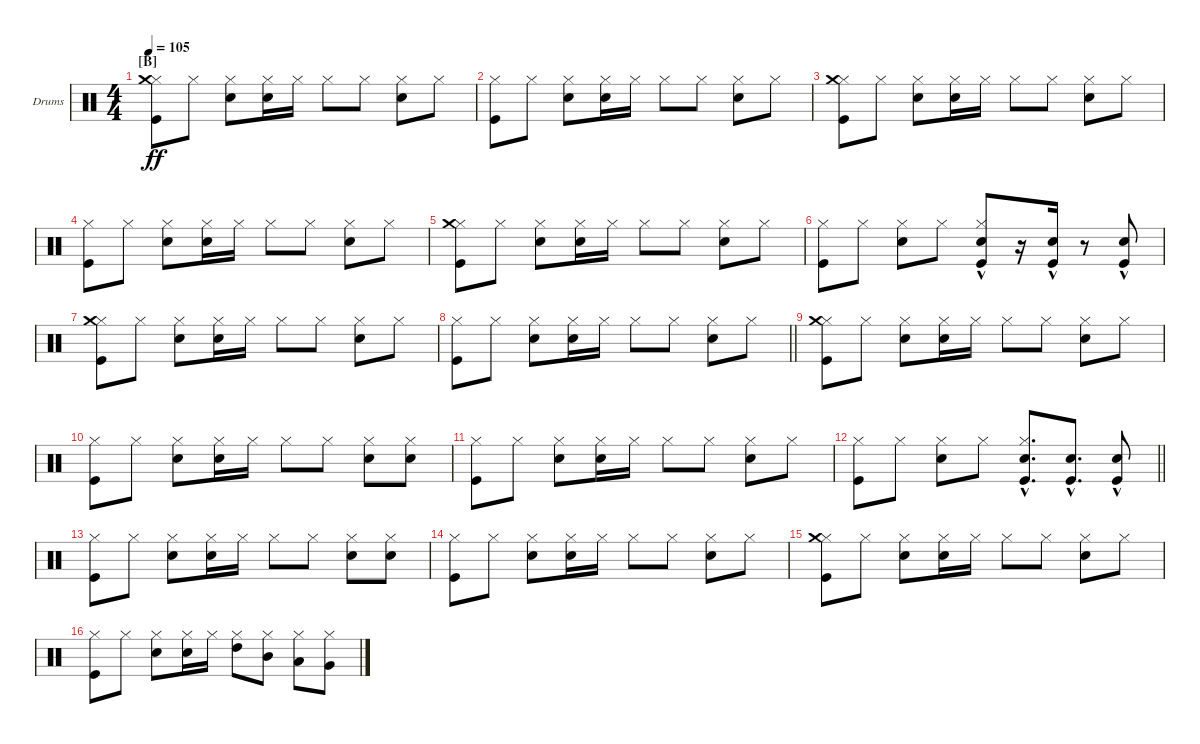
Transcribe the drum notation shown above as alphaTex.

\bracketExtendMode groupsimilarinstruments
\firstSystemTrackNameOrientation horizontal
\otherSystemsTrackNameOrientation horizontal
\track ("Drumkit" "Drums") {instrument percussion}
\staff {score}
\articulation defaults
\ts (4 4)
\section ("B" "")
\tempo 105
\clef neutral
\ks c
("Kick (hit)" "Hi-Hat (closed)" "Crash medium (hit)").8{dy ff} "Hi-Hat (closed)".8 ("Snare (hit) 2" "Hi-Hat (closed)").8 ("Hi-Hat (closed)" "Snare (hit) 2").16 "Hi-Hat (closed)".16 "Hi-Hat (closed)".8 "Hi-Hat (closed)".8 ("Snare (hit) 2" "Hi-Hat (closed)").8 "Hi-Hat (closed)".8 |
("Kick (hit)" "Hi-Hat (closed)").8 "Hi-Hat (closed)".8 ("Snare (hit) 2" "Hi-Hat (closed)").8 ("Hi-Hat (closed)" "Snare (hit) 2").16 "Hi-Hat (closed)".16 "Hi-Hat (closed)".8 "Hi-Hat (closed)".8 ("Snare (hit) 2" "Hi-Hat (closed)").8 "Hi-Hat (closed)".8 |
("Kick (hit)" "Hi-Hat (closed)" "Crash medium (hit)").8 "Hi-Hat (closed)".8 ("Snare (hit) 2" "Hi-Hat (closed)").8 ("Hi-Hat (closed)" "Snare (hit) 2").16 "Hi-Hat (closed)".16 "Hi-Hat (closed)".8 "Hi-Hat (closed)".8 ("Snare (hit) 2" "Hi-Hat (closed)").8 "Hi-Hat (closed)".8 |
("Kick (hit)" "Hi-Hat (closed)").8 "Hi-Hat (closed)".8 ("Snare (hit) 2" "Hi-Hat (closed)").8 ("Hi-Hat (closed)" "Snare (hit) 2").16 "Hi-Hat (closed)".16 "Hi-Hat (closed)".8 "Hi-Hat (closed)".8 ("Snare (hit) 2" "Hi-Hat (closed)").8 "Hi-Hat (closed)".8 |
("Kick (hit)" "Hi-Hat (closed)" "Crash medium (hit)").8 "Hi-Hat (closed)".8 ("Snare (hit) 2" "Hi-Hat (closed)").8 ("Hi-Hat (closed)" "Snare (hit) 2").16 "Hi-Hat (closed)".16 "Hi-Hat (closed)".8 "Hi-Hat (closed)".8 ("Snare (hit) 2" "Hi-Hat (closed)").8 "Hi-Hat (closed)".8 |
("Hi-Hat (closed)" "Kick (hit)").8 "Hi-Hat (closed)".8 ("Snare (hit) 2" "Hi-Hat (closed)").8 "Hi-Hat (closed)".8 ("Hi-Hat (closed)" "Snare (hit) 2"{hac} "Kick (hit)").8 r.16 ("Snare (hit) 2"{hac} "Kick (hit)").16 r.8 ("Snare (hit) 2"{hac} "Kick (hit)").8 |
("Kick (hit)" "Hi-Hat (closed)" "Crash medium (hit)").8 "Hi-Hat (closed)".8 ("Snare (hit) 2" "Hi-Hat (closed)").8 ("Hi-Hat (closed)" "Snare (hit) 2").16 "Hi-Hat (closed)".16 "Hi-Hat (closed)".8 "Hi-Hat (closed)".8 ("Snare (hit) 2" "Hi-Hat (closed)").8 "Hi-Hat (closed)".8 |
\barLineRight lightlight
("Kick (hit)" "Hi-Hat (closed)").8 "Hi-Hat (closed)".8 ("Snare (hit) 2" "Hi-Hat (closed)").8 ("Hi-Hat (closed)" "Snare (hit) 2").16 "Hi-Hat (closed)".16 "Hi-Hat (closed)".8 "Hi-Hat (closed)".8 ("Snare (hit) 2" "Hi-Hat (closed)").8 "Hi-Hat (closed)".8 |
("Kick (hit)" "Hi-Hat (closed)" "Crash medium (hit)").8 "Hi-Hat (closed)".8 ("Snare (hit) 2" "Hi-Hat (closed)").8 ("Hi-Hat (closed)" "Snare (hit) 2").16 "Hi-Hat (closed)".16 "Hi-Hat (closed)".8 "Hi-Hat (closed)".8 ("Snare (hit) 2" "Hi-Hat (closed)").8 "Hi-Hat (closed)".8 |
("Kick (hit)" "Hi-Hat (closed)").8 "Hi-Hat (closed)".8 ("Snare (hit) 2" "Hi-Hat (closed)").8 ("Hi-Hat (closed)" "Snare (hit) 2").16 "Hi-Hat (closed)".16 "Hi-Hat (closed)".8 "Hi-Hat (closed)".8 ("Snare (hit) 2" "Hi-Hat (closed)").8 ("Hi-Hat (closed)" "Snare (hit) 2").8 |
("Kick (hit)" "Hi-Hat (closed)").8 "Hi-Hat (closed)".8 ("Snare (hit) 2" "Hi-Hat (closed)").8 ("Hi-Hat (closed)" "Snare (hit) 2").16 "Hi-Hat (closed)".16 "Hi-Hat (closed)".8 "Hi-Hat (closed)".8 ("Snare (hit) 2" "Hi-Hat (closed)").8 "Hi-Hat (closed)".8 |
\barLineRight lightlight
("Hi-Hat (closed)" "Kick (hit)").8 "Hi-Hat (closed)".8 ("Snare (hit) 2" "Hi-Hat (closed)").8 "Hi-Hat (closed)".8 ("Hi-Hat (closed)" "Snare (hit) 2"{hac} "Kick (hit)").8{d} ("Snare (hit) 2"{hac} "Kick (hit)").8{d} ("Snare (hit) 2"{hac} "Kick (hit)").8 |
("Kick (hit)" "Hi-Hat (closed)").8 "Hi-Hat (closed)".8 ("Snare (hit) 2" "Hi-Hat (closed)").8 ("Hi-Hat (closed)" "Snare (hit) 2").16 "Hi-Hat (closed)".16 "Hi-Hat (closed)".8 "Hi-Hat (closed)".8 ("Snare (hit) 2" "Hi-Hat (closed)").8 ("Hi-Hat (closed)" "Snare (hit) 2").8 |
("Kick (hit)" "Hi-Hat (closed)").8 "Hi-Hat (closed)".8 ("Snare (hit) 2" "Hi-Hat (closed)").8 ("Hi-Hat (closed)" "Snare (hit) 2").16 "Hi-Hat (closed)".16 "Hi-Hat (closed)".8 "Hi-Hat (closed)".8 ("Snare (hit) 2" "Hi-Hat (closed)").8 "Hi-Hat (closed)".8 |
("Kick (hit)" "Hi-Hat (closed)" "Crash medium (hit)").8 "Hi-Hat (closed)".8 ("Snare (hit) 2" "Hi-Hat (closed)").8 ("Hi-Hat (closed)" "Snare (hit) 2").16 "Hi-Hat (closed)".16 "Hi-Hat (closed)".8 "Hi-Hat (closed)".8 ("Snare (hit) 2" "Hi-Hat (closed)").8 "Hi-Hat (closed)".8 |
("Kick (hit)" "Hi-Hat (closed)").8 "Hi-Hat (closed)".8 ("Snare (hit) 2" "Hi-Hat (closed)").8 ("Hi-Hat (closed)" "Snare (hit) 2").16 "Hi-Hat (closed)".16 ("Hi-Hat (closed)" "High Tom (hit)").8 ("Hi-Hat (closed)" "Mid Tom (hit)").8 ("Hi-Hat (closed)" "Low Tom (hit)").8 ("Hi-Hat (closed)" "Very Low Tom (hit)").8
